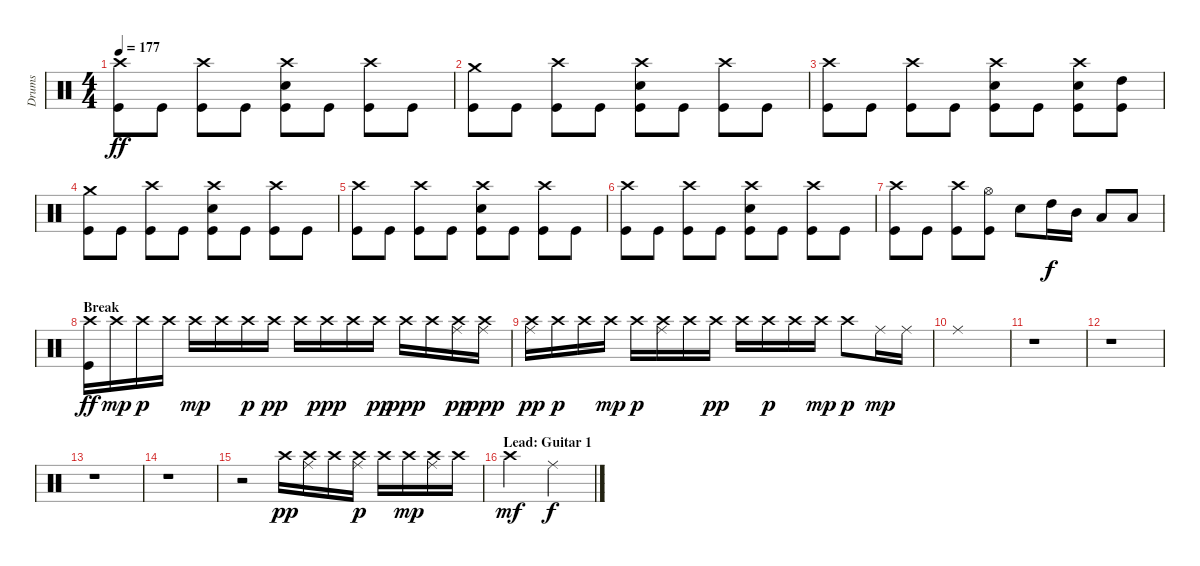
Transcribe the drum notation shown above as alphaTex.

\track ("Drums" "Drums") {instrument percussion}
\staff {score}
\articulation defaults
\ts (4 4)
\tempo 177
\clef neutral
\ks c
("Crash high (hit)" "Kick (hit)").8{dy ff} "Kick (hit)".8 ("Crash high (hit)" "Kick (hit)").8 "Kick (hit)".8 ("Crash high (hit)" "Electric Snare (hit)" "Kick (hit)").8 "Kick (hit)".8 ("Crash high (hit)" "Kick (hit)").8 "Kick (hit)".8 |
("Crash medium (hit)" "Kick (hit)").8 "Kick (hit)".8 ("Crash high (hit)" "Kick (hit)").8 "Kick (hit)".8 ("Crash high (hit)" "Electric Snare (hit)" "Kick (hit)").8 "Kick (hit)".8 ("Crash high (hit)" "Kick (hit)").8 "Kick (hit)".8 |
("Crash high (hit)" "Kick (hit)").8 "Kick (hit)".8 ("Crash high (hit)" "Kick (hit)").8 "Kick (hit)".8 ("Crash high (hit)" "Electric Snare (hit)" "Kick (hit)").8 "Kick (hit)".8 ("Crash high (hit)" "Electric Snare (hit)" "Kick (hit)").8 ("High Tom (hit)" "Kick (hit)").8 |
("Crash medium (hit)" "Kick (hit)").8 "Kick (hit)".8 ("Crash high (hit)" "Kick (hit)").8 "Kick (hit)".8 ("Crash high (hit)" "Electric Snare (hit)" "Kick (hit)").8 "Kick (hit)".8 ("Crash high (hit)" "Kick (hit)").8 "Kick (hit)".8 |
("Crash high (hit)" "Kick (hit)").8 "Kick (hit)".8 ("Crash high (hit)" "Kick (hit)").8 "Kick (hit)".8 ("Crash high (hit)" "Electric Snare (hit)" "Kick (hit)").8 "Kick (hit)".8 ("Crash high (hit)" "Kick (hit)").8 "Kick (hit)".8 |
("Crash high (hit)" "Kick (hit)").8 "Kick (hit)".8 ("Crash high (hit)" "Kick (hit)").8 "Kick (hit)".8 ("Crash high (hit)" "Electric Snare (hit)" "Kick (hit)").8 "Kick (hit)".8 ("Crash high (hit)" "Kick (hit)").8 "Kick (hit)".8 |
("Crash high (hit)" "Kick (hit)").8 "Kick (hit)".8 ("Crash high (hit)" "Kick (hit)").8 ("Hi-Hat (open)" "Kick (hit)").8 "Electric Snare (hit)".8 "High Tom (hit)".16{dy f} "Mid Tom (hit)".16 "Low Tom (hit)".8 "Low Tom (hit)".8 |
\section ("" "Break")
("Crash high (hit)" "Kick (hit)").16{dy ff} "Crash high (hit)".16{dy mp} "Crash high (hit)".16{dy p} "Crash high (hit)".16 "Crash high (hit)".16{dy mp} "Crash high (hit)".16 "Crash high (hit)".16{dy p} "Crash high (hit)".16{dy pp} "Crash high (hit)".16 "Crash high (hit)".16{dy ppp} "Crash high (hit)".16 "Crash high (hit)".16{dy pp} "Crash high (hit)".16{dy ppp} "Crash high (hit)".16 ("Ride (middle)" "Crash high (hit)").16{dy pp} ("Ride (middle)" "Crash high (hit)").16{dy ppp} |
("Ride (middle)" "Crash high (hit)").16{dy pp} "Crash high (hit)".16{dy p} "Crash high (hit)".16 "Crash high (hit)".16{dy mp} "Crash high (hit)".16{dy p} ("Ride (middle)" "Crash high (hit)").16 "Crash high (hit)".16 "Crash high (hit)".16{dy pp} "Crash high (hit)".16 "Crash high (hit)".16{dy p} "Crash high (hit)".16 "Crash high (hit)".16{dy mp} "Crash high (hit)".8{dy p} "Ride (middle)".16{dy mp} "Ride (middle)".16 |
"Ride (middle)".1 |
r.1 |
r.1 |
r.1 |
r.1 |
r.2 "Crash high (hit)".16{dy pp} ("Ride (middle)" "Crash high (hit)").16 "Crash high (hit)".16 ("Ride (middle)" "Crash high (hit)").16{dy p} "Crash high (hit)".16 "Crash high (hit)".16{dy mp} ("Ride (middle)" "Crash high (hit)").16 "Crash high (hit)".16 |
\section ("" "Lead: Guitar 1")
"Crash high (hit)".2{dy mf} "Ride (middle)".2{dy f}
